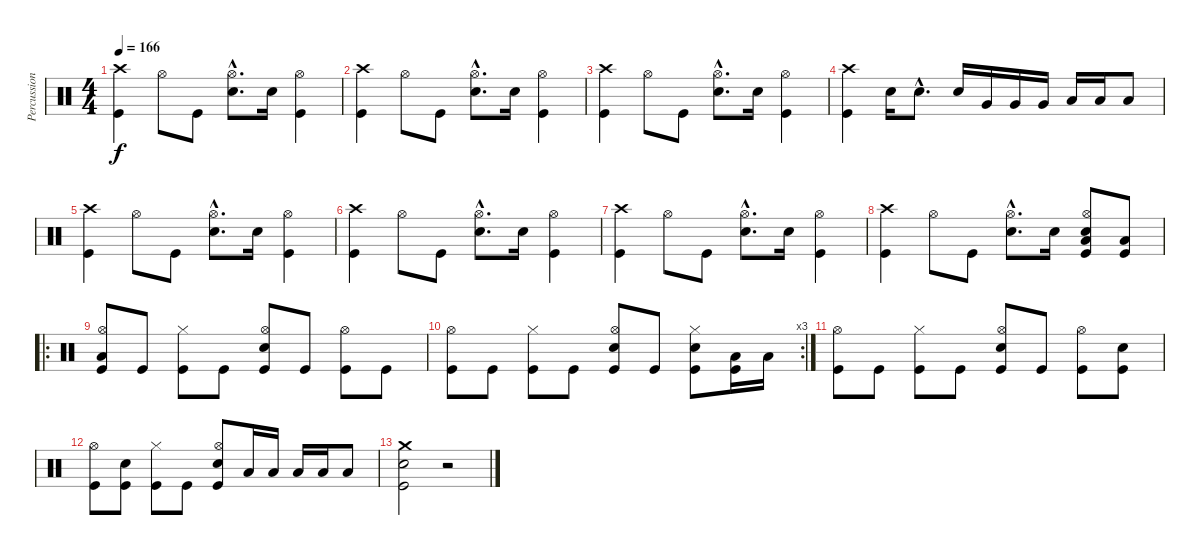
\track ("Percussions" "Percussion") {instrument percussion}
\staff {score}
\articulation defaults
\ts (4 4)
\tempo 166
\clef neutral
\ks c
("Crash high (hit)" "Kick (hit)").4{dy f} "Hi-Hat (open)".8 "Kick (hit)".8 ("Hi-Hat (open)"{hac} "Snare (hit) 2"{hac}).8{d} "Snare (hit) 2".16 ("Hi-Hat (open)" "Kick (hit)").4 |
("Crash high (hit)" "Kick (hit)").4 "Hi-Hat (open)".8 "Kick (hit)".8 ("Hi-Hat (open)"{hac} "Snare (hit) 2"{hac}).8{d} "Snare (hit) 2".16 ("Hi-Hat (open)" "Kick (hit)").4 |
("Crash high (hit)" "Kick (hit)").4 "Hi-Hat (open)".8 "Kick (hit)".8 ("Hi-Hat (open)"{hac} "Snare (hit) 2"{hac}).8{d} "Snare (hit) 2".16 ("Hi-Hat (open)" "Kick (hit)").4 |
("Crash high (hit)" "Kick (hit)").4 "Snare (hit) 2".16 "Snare (hit) 2"{hac}.8{d} "Snare (hit) 2".16 "Very Low Tom (hit)".16 "Very Low Tom (hit)".16 "Very Low Tom (hit)".16 "Low Floor Tom (hit)".16 "Low Floor Tom (hit)".16 "Low Floor Tom (hit)".8 |
("Crash high (hit)" "Kick (hit)").4 "Hi-Hat (open)".8 "Kick (hit)".8 ("Hi-Hat (open)"{hac} "Snare (hit) 2"{hac}).8{d} "Snare (hit) 2".16 ("Hi-Hat (open)" "Kick (hit)").4 |
("Crash high (hit)" "Kick (hit)").4 "Hi-Hat (open)".8 "Kick (hit)".8 ("Hi-Hat (open)"{hac} "Snare (hit) 2"{hac}).8{d} "Snare (hit) 2".16 ("Hi-Hat (open)" "Kick (hit)").4 |
("Crash high (hit)" "Kick (hit)").4 "Hi-Hat (open)".8 "Kick (hit)".8 ("Hi-Hat (open)"{hac} "Snare (hit) 2"{hac}).8{d} "Snare (hit) 2".16 ("Hi-Hat (open)" "Kick (hit)").4 |
("Crash high (hit)" "Kick (hit)").4 "Hi-Hat (open)".8 "Kick (hit)".8 ("Hi-Hat (open)"{hac} "Snare (hit) 2"{hac}).8{d} "Snare (hit) 2".16 ("Hi-Hat (open)" "Snare (hit) 2" "Low Floor Tom (hit)" "Kick (hit)").8 ("Low Floor Tom (hit)" "Kick (hit)").8 |
\ro
("Hi-Hat (open)" "Low Floor Tom (hit)" "Kick (hit)").8 "Kick (hit)".8 ("Hi-Hat (closed)" "Kick (hit)").8 "Kick (hit)".8 ("Hi-Hat (open)" "Snare (hit) 2" "Kick (hit)").8 "Kick (hit)".8 ("Hi-Hat (open)" "Kick (hit)").8 "Kick (hit)".8 |
\rc 3
("Hi-Hat (open)" "Kick (hit)").8 "Kick (hit)".8 ("Hi-Hat (closed)" "Kick (hit)").8 "Kick (hit)".8 ("Hi-Hat (open)" "Snare (hit) 2" "Kick (hit)").8 "Kick (hit)".8 ("Hi-Hat (closed)" "Snare (hit) 2" "Kick (hit)").8 ("Low Floor Tom (hit)" "Kick (hit)").16 "Low Floor Tom (hit)".16 |
("Hi-Hat (open)" "Kick (hit)").8 "Kick (hit)".8 ("Hi-Hat (closed)" "Kick (hit)").8 "Kick (hit)".8 ("Hi-Hat (open)" "Snare (hit) 2" "Kick (hit)").8 "Kick (hit)".8 ("Hi-Hat (open)" "Kick (hit)").8 ("Snare (hit) 2" "Kick (hit)").8 |
("Hi-Hat (open)" "Kick (hit)").8 ("Snare (hit) 2" "Kick (hit)").8 ("Hi-Hat (closed)" "Kick (hit)").8 "Kick (hit)".8 ("Hi-Hat (open)" "Snare (hit) 2" "Kick (hit)").8 "Low Floor Tom (hit)".16 "Low Floor Tom (hit)".16 "Low Floor Tom (hit)".16 "Low Floor Tom (hit)".16 "Low Floor Tom (hit)".8 |
("Crash medium (hit)" "Snare (hit) 2" "Kick (hit)").2 r.2
